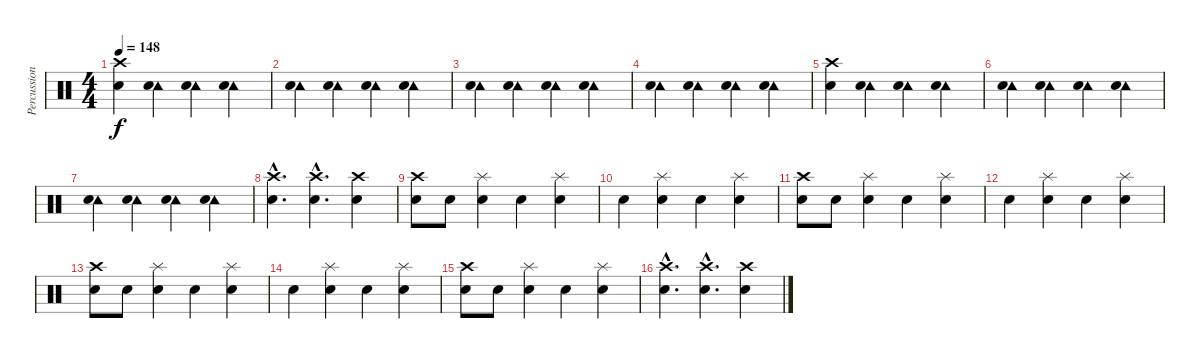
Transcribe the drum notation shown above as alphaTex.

\track ("Percussions" "Percussion") {instrument percussion}
\staff {score}
\articulation defaults
\ts (4 4)
\tempo 148
\clef neutral
\ks c
("Crash high (hit)" "Snare (hit) 2").4{dy f} ("Tambourine (hit)" "Electric Snare (hit)").4 ("Tambourine (hit)" "Snare (hit) 2").4 ("Tambourine (hit)" "Electric Snare (hit)").4 |
("Tambourine (hit)" "Snare (hit) 2").4 ("Tambourine (hit)" "Electric Snare (hit)").4 ("Tambourine (hit)" "Snare (hit) 2").4 ("Tambourine (hit)" "Electric Snare (hit)").4 |
("Tambourine (hit)" "Snare (hit) 2").4 ("Tambourine (hit)" "Electric Snare (hit)").4 ("Tambourine (hit)" "Snare (hit) 2").4 ("Tambourine (hit)" "Electric Snare (hit)").4 |
("Tambourine (hit)" "Snare (hit) 2").4 ("Tambourine (hit)" "Electric Snare (hit)").4 ("Tambourine (hit)" "Snare (hit) 2").4 ("Tambourine (hit)" "Electric Snare (hit)").4 |
("Crash high (hit)" "Snare (hit) 2").4 ("Tambourine (hit)" "Electric Snare (hit)").4 ("Tambourine (hit)" "Snare (hit) 2").4 ("Tambourine (hit)" "Electric Snare (hit)").4 |
("Tambourine (hit)" "Snare (hit) 2").4 ("Tambourine (hit)" "Electric Snare (hit)").4 ("Tambourine (hit)" "Snare (hit) 2").4 ("Tambourine (hit)" "Electric Snare (hit)").4 |
("Tambourine (hit)" "Snare (hit) 2").4 ("Tambourine (hit)" "Electric Snare (hit)").4 ("Tambourine (hit)" "Snare (hit) 2").4 ("Tambourine (hit)" "Electric Snare (hit)").4 |
("Crash high (hit)"{hac} "Snare (hit) 2"{hac}).4{d} ("Crash high (hit)"{hac} "Snare (hit) 2"{hac}).4{d} ("Crash high (hit)" "Snare (hit) 2").4 |
("Crash high (hit)" "Snare (hit) 2").8 "Snare (hit) 2".8 ("Splash (hit)" "Electric Snare (hit)").4 "Snare (hit) 2".4 ("Splash (hit)" "Electric Snare (hit)").4 |
"Snare (hit) 2".4 ("Splash (hit)" "Electric Snare (hit)").4 "Snare (hit) 2".4 ("Splash (hit)" "Electric Snare (hit)").4 |
("Crash high (hit)" "Snare (hit) 2").8 "Snare (hit) 2".8 ("Splash (hit)" "Electric Snare (hit)").4 "Snare (hit) 2".4 ("Splash (hit)" "Electric Snare (hit)").4 |
"Snare (hit) 2".4 ("Splash (hit)" "Electric Snare (hit)").4 "Snare (hit) 2".4 ("Splash (hit)" "Electric Snare (hit)").4 |
("Crash high (hit)" "Snare (hit) 2").8 "Snare (hit) 2".8 ("Splash (hit)" "Electric Snare (hit)").4 "Snare (hit) 2".4 ("Splash (hit)" "Electric Snare (hit)").4 |
"Snare (hit) 2".4 ("Splash (hit)" "Electric Snare (hit)").4 "Snare (hit) 2".4 ("Splash (hit)" "Electric Snare (hit)").4 |
("Crash high (hit)" "Snare (hit) 2").8 "Snare (hit) 2".8 ("Splash (hit)" "Electric Snare (hit)").4 "Snare (hit) 2".4 ("Splash (hit)" "Electric Snare (hit)").4 |
("Crash high (hit)"{hac} "Snare (hit) 2"{hac}).4{d} ("Crash high (hit)"{hac} "Snare (hit) 2"{hac}).4{d} ("Crash high (hit)" "Snare (hit) 2").4
